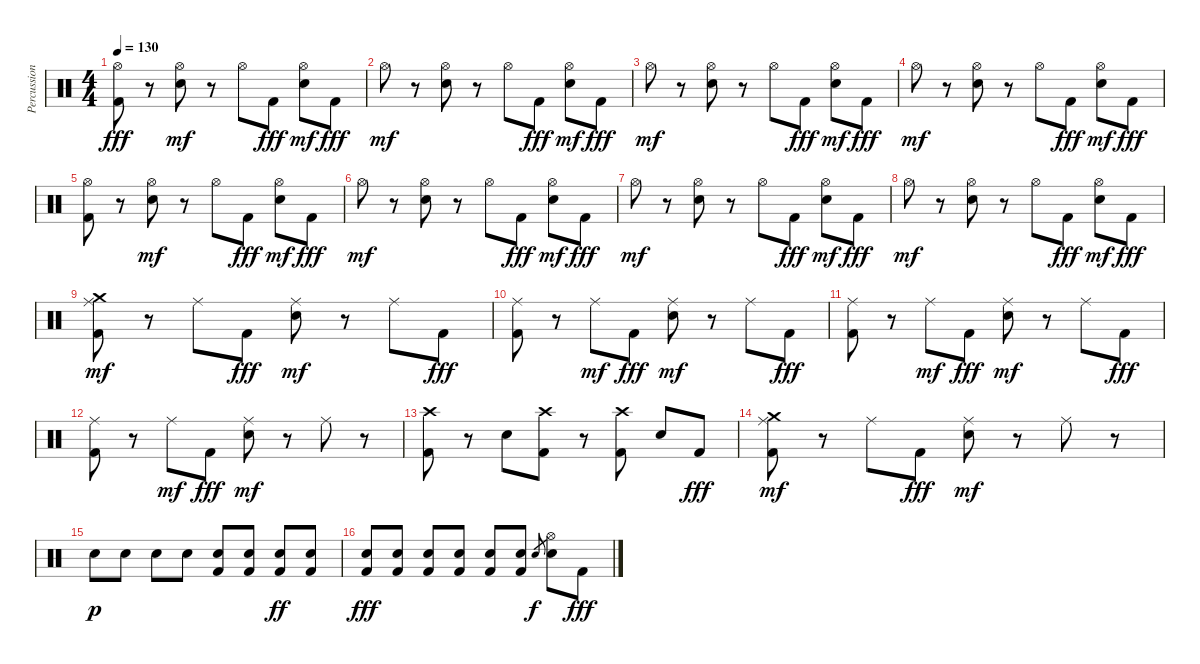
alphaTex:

\track ("Percussion" "Percussion") {instrument percussion}
\staff {score}
\articulation defaults
\ts (4 4)
\tempo 130
\clef neutral
\ks c
("Hi-Hat (open)" "Kick (hit) 2").8{dy fff} r.8 ("Hi-Hat (open)" "Electric Snare (hit)").8{dy mf} r.8 "Hi-Hat (open)".8 "Kick (hit) 2".8{dy fff} ("Hi-Hat (open)" "Electric Snare (hit)").8{dy mf} "Kick (hit) 2".8{dy fff} |
"Hi-Hat (open)".8{dy mf} r.8 ("Hi-Hat (open)" "Electric Snare (hit)").8 r.8 "Hi-Hat (open)".8 "Kick (hit) 2".8{dy fff} ("Hi-Hat (open)" "Electric Snare (hit)").8{dy mf} "Kick (hit) 2".8{dy fff} |
"Hi-Hat (open)".8{dy mf} r.8 ("Hi-Hat (open)" "Electric Snare (hit)").8 r.8 "Hi-Hat (open)".8 "Kick (hit) 2".8{dy fff} ("Hi-Hat (open)" "Electric Snare (hit)").8{dy mf} "Kick (hit) 2".8{dy fff} |
"Hi-Hat (open)".8{dy mf} r.8 ("Hi-Hat (open)" "Electric Snare (hit)").8 r.8 "Hi-Hat (open)".8 "Kick (hit) 2".8{dy fff} ("Hi-Hat (open)" "Electric Snare (hit)").8{dy mf} "Kick (hit) 2".8{dy fff} |
("Hi-Hat (open)" "Kick (hit) 2").8 r.8 ("Hi-Hat (open)" "Electric Snare (hit)").8{dy mf} r.8 "Hi-Hat (open)".8 "Kick (hit) 2".8{dy fff} ("Hi-Hat (open)" "Electric Snare (hit)").8{dy mf} "Kick (hit) 2".8{dy fff} |
"Hi-Hat (open)".8{dy mf} r.8 ("Hi-Hat (open)" "Electric Snare (hit)").8 r.8 "Hi-Hat (open)".8 "Kick (hit) 2".8{dy fff} ("Hi-Hat (open)" "Electric Snare (hit)").8{dy mf} "Kick (hit) 2".8{dy fff} |
"Hi-Hat (open)".8{dy mf} r.8 ("Hi-Hat (open)" "Electric Snare (hit)").8 r.8 "Hi-Hat (open)".8 "Kick (hit) 2".8{dy fff} ("Hi-Hat (open)" "Electric Snare (hit)").8{dy mf} "Kick (hit) 2".8{dy fff} |
"Hi-Hat (open)".8{dy mf} r.8 ("Hi-Hat (open)" "Electric Snare (hit)").8 r.8 "Hi-Hat (open)".8 "Kick (hit) 2".8{dy fff} ("Hi-Hat (open)" "Electric Snare (hit)").8{dy mf} "Kick (hit) 2".8{dy fff} |
("Ride (middle)" "Kick (hit) 2" "Crash medium (hit)").8{dy mf} r.8 "Ride (middle)".8 "Kick (hit) 2".8{dy fff} ("Ride (middle)" "Electric Snare (hit)").8{dy mf} r.8 "Ride (middle)".8 "Kick (hit) 2".8{dy fff} |
("Ride (middle)" "Kick (hit) 2").8 r.8 "Ride (middle)".8{dy mf} "Kick (hit) 2".8{dy fff} ("Ride (middle)" "Electric Snare (hit)").8{dy mf} r.8 "Ride (middle)".8 "Kick (hit) 2".8{dy fff} |
("Ride (middle)" "Kick (hit) 2").8 r.8 "Ride (middle)".8{dy mf} "Kick (hit) 2".8{dy fff} ("Ride (middle)" "Electric Snare (hit)").8{dy mf} r.8 "Ride (middle)".8 "Kick (hit) 2".8{dy fff} |
("Ride (middle)" "Kick (hit) 2").8 r.8 "Ride (middle)".8{dy mf} "Kick (hit) 2".8{dy fff} ("Ride (middle)" "Electric Snare (hit)").8{dy mf} r.8 "Ride (middle)".8 r.8 |
("Kick (hit) 2" "Crash high (hit)").8 r.8 "Electric Snare (hit)".8 ("Kick (hit) 2" "Crash high (hit)").8 r.8 ("Kick (hit) 2" "Crash high (hit)").8 "Electric Snare (hit)".8 "Kick (hit) 2".8{dy fff} |
("Ride (middle)" "Kick (hit) 2" "Crash medium (hit)").8{dy mf} r.8 "Ride (middle)".8 "Kick (hit) 2".8{dy fff} ("Ride (middle)" "Electric Snare (hit)").8{dy mf} r.8 "Ride (middle)".8 r.8 |
"Electric Snare (hit)".8{dy p} "Electric Snare (hit)".8 "Electric Snare (hit)".8 "Electric Snare (hit)".8 ("Electric Snare (hit)" "Kick (hit) 2").8 ("Electric Snare (hit)" "Kick (hit) 2").8 ("Electric Snare (hit)" "Kick (hit) 2").8{dy ff} ("Electric Snare (hit)" "Kick (hit) 2").8 |
("Electric Snare (hit)" "Kick (hit) 2").8{dy fff} ("Electric Snare (hit)" "Kick (hit) 2").8 ("Electric Snare (hit)" "Kick (hit) 2").8 ("Electric Snare (hit)" "Kick (hit) 2").8 ("Electric Snare (hit)" "Kick (hit) 2").8 ("Electric Snare (hit)" "Kick (hit) 2").8 "Electric Snare (hit)".8{gr dy f} ("Electric Snare (hit)" "Hi-Hat (open)").8 "Kick (hit) 2".8{dy fff}
